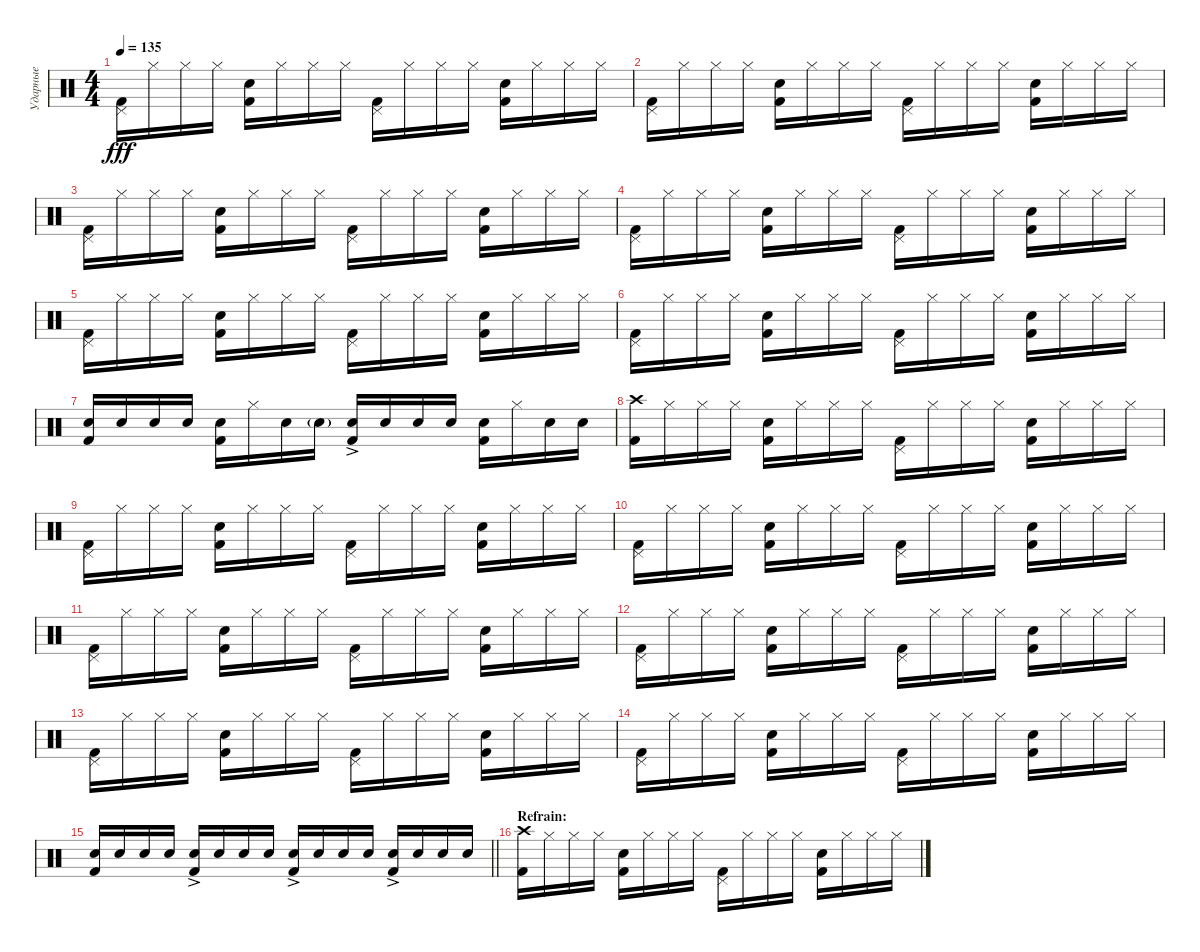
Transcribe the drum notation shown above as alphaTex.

\track ("Ударные" "Ударные") {instrument percussion}
\staff {score}
\articulation defaults
\ts (4 4)
\tempo 135
\clef neutral
\ks c
("Pedal Hi-Hat (hit)" "Kick (hit) 2").16{dy fff} "Hi-Hat (closed)".16 "Hi-Hat (closed)".16 "Hi-Hat (closed)".16 ("Snare (hit) 2" "Kick (hit) 2").16 "Hi-Hat (closed)".16 "Hi-Hat (closed)".16 "Hi-Hat (closed)".16 ("Pedal Hi-Hat (hit)" "Kick (hit) 2").16 "Hi-Hat (closed)".16 "Hi-Hat (closed)".16 "Hi-Hat (closed)".16 ("Snare (hit) 2" "Kick (hit) 2").16 "Hi-Hat (closed)".16 "Hi-Hat (closed)".16 "Hi-Hat (closed)".16 |
("Pedal Hi-Hat (hit)" "Kick (hit) 2").16 "Hi-Hat (closed)".16 "Hi-Hat (closed)".16 "Hi-Hat (closed)".16 ("Snare (hit) 2" "Kick (hit) 2").16 "Hi-Hat (closed)".16 "Hi-Hat (closed)".16 "Hi-Hat (closed)".16 ("Pedal Hi-Hat (hit)" "Kick (hit) 2").16 "Hi-Hat (closed)".16 "Hi-Hat (closed)".16 "Hi-Hat (closed)".16 ("Snare (hit) 2" "Kick (hit) 2").16 "Hi-Hat (closed)".16 "Hi-Hat (closed)".16 "Hi-Hat (closed)".16 |
("Pedal Hi-Hat (hit)" "Kick (hit) 2").16 "Hi-Hat (closed)".16 "Hi-Hat (closed)".16 "Hi-Hat (closed)".16 ("Snare (hit) 2" "Kick (hit) 2").16 "Hi-Hat (closed)".16 "Hi-Hat (closed)".16 "Hi-Hat (closed)".16 ("Pedal Hi-Hat (hit)" "Kick (hit) 2").16 "Hi-Hat (closed)".16 "Hi-Hat (closed)".16 "Hi-Hat (closed)".16 ("Snare (hit) 2" "Kick (hit) 2").16 "Hi-Hat (closed)".16 "Hi-Hat (closed)".16 "Hi-Hat (closed)".16 |
("Pedal Hi-Hat (hit)" "Kick (hit) 2").16 "Hi-Hat (closed)".16 "Hi-Hat (closed)".16 "Hi-Hat (closed)".16 ("Snare (hit) 2" "Kick (hit) 2").16 "Hi-Hat (closed)".16 "Hi-Hat (closed)".16 "Hi-Hat (closed)".16 ("Pedal Hi-Hat (hit)" "Kick (hit) 2").16 "Hi-Hat (closed)".16 "Hi-Hat (closed)".16 "Hi-Hat (closed)".16 ("Snare (hit) 2" "Kick (hit) 2").16 "Hi-Hat (closed)".16 "Hi-Hat (closed)".16 "Hi-Hat (closed)".16 |
("Pedal Hi-Hat (hit)" "Kick (hit) 2").16 "Hi-Hat (closed)".16 "Hi-Hat (closed)".16 "Hi-Hat (closed)".16 ("Snare (hit) 2" "Kick (hit) 2").16 "Hi-Hat (closed)".16 "Hi-Hat (closed)".16 "Hi-Hat (closed)".16 ("Pedal Hi-Hat (hit)" "Kick (hit) 2").16 "Hi-Hat (closed)".16 "Hi-Hat (closed)".16 "Hi-Hat (closed)".16 ("Snare (hit) 2" "Kick (hit) 2").16 "Hi-Hat (closed)".16 "Hi-Hat (closed)".16 "Hi-Hat (closed)".16 |
("Pedal Hi-Hat (hit)" "Kick (hit) 2").16 "Hi-Hat (closed)".16 "Hi-Hat (closed)".16 "Hi-Hat (closed)".16 ("Snare (hit) 2" "Kick (hit) 2").16 "Hi-Hat (closed)".16 "Hi-Hat (closed)".16 "Hi-Hat (closed)".16 ("Pedal Hi-Hat (hit)" "Kick (hit) 2").16 "Hi-Hat (closed)".16 "Hi-Hat (closed)".16 "Hi-Hat (closed)".16 ("Snare (hit) 2" "Kick (hit) 2").16 "Hi-Hat (closed)".16 "Hi-Hat (closed)".16 "Hi-Hat (closed)".16 |
("Snare (hit) 2" "Kick (hit) 2").16 "Snare (hit) 2".16 "Snare (hit) 2".16 "Snare (hit) 2".16 ("Snare (hit) 2" "Kick (hit) 2").16 "Hi-Hat (closed)".16 "Snare (hit) 2".16 "Snare (hit) 2"{g}.16 ("Snare (hit) 2"{ac} "Kick (hit) 2").16 "Snare (hit) 2".16 "Snare (hit) 2".16 "Snare (hit) 2".16 ("Snare (hit) 2" "Kick (hit) 2").16 "Hi-Hat (closed)".16 "Snare (hit) 2".16 "Snare (hit) 2".16 |
("Crash high (hit)" "Kick (hit) 2").16 "Hi-Hat (closed)".16 "Hi-Hat (closed)".16 "Hi-Hat (closed)".16 ("Snare (hit) 2" "Kick (hit) 2").16 "Hi-Hat (closed)".16 "Hi-Hat (closed)".16 "Hi-Hat (closed)".16 ("Pedal Hi-Hat (hit)" "Kick (hit) 2").16 "Hi-Hat (closed)".16 "Hi-Hat (closed)".16 "Hi-Hat (closed)".16 ("Snare (hit) 2" "Kick (hit) 2").16 "Hi-Hat (closed)".16 "Hi-Hat (closed)".16 "Hi-Hat (closed)".16 |
("Pedal Hi-Hat (hit)" "Kick (hit) 2").16 "Hi-Hat (closed)".16 "Hi-Hat (closed)".16 "Hi-Hat (closed)".16 ("Snare (hit) 2" "Kick (hit) 2").16 "Hi-Hat (closed)".16 "Hi-Hat (closed)".16 "Hi-Hat (closed)".16 ("Pedal Hi-Hat (hit)" "Kick (hit) 2").16 "Hi-Hat (closed)".16 "Hi-Hat (closed)".16 "Hi-Hat (closed)".16 ("Snare (hit) 2" "Kick (hit) 2").16 "Hi-Hat (closed)".16 "Hi-Hat (closed)".16 "Hi-Hat (closed)".16 |
("Pedal Hi-Hat (hit)" "Kick (hit) 2").16 "Hi-Hat (closed)".16 "Hi-Hat (closed)".16 "Hi-Hat (closed)".16 ("Snare (hit) 2" "Kick (hit) 2").16 "Hi-Hat (closed)".16 "Hi-Hat (closed)".16 "Hi-Hat (closed)".16 ("Pedal Hi-Hat (hit)" "Kick (hit) 2").16 "Hi-Hat (closed)".16 "Hi-Hat (closed)".16 "Hi-Hat (closed)".16 ("Snare (hit) 2" "Kick (hit) 2").16 "Hi-Hat (closed)".16 "Hi-Hat (closed)".16 "Hi-Hat (closed)".16 |
("Pedal Hi-Hat (hit)" "Kick (hit) 2").16 "Hi-Hat (closed)".16 "Hi-Hat (closed)".16 "Hi-Hat (closed)".16 ("Snare (hit) 2" "Kick (hit) 2").16 "Hi-Hat (closed)".16 "Hi-Hat (closed)".16 "Hi-Hat (closed)".16 ("Pedal Hi-Hat (hit)" "Kick (hit) 2").16 "Hi-Hat (closed)".16 "Hi-Hat (closed)".16 "Hi-Hat (closed)".16 ("Snare (hit) 2" "Kick (hit) 2").16 "Hi-Hat (closed)".16 "Hi-Hat (closed)".16 "Hi-Hat (closed)".16 |
("Pedal Hi-Hat (hit)" "Kick (hit) 2").16 "Hi-Hat (closed)".16 "Hi-Hat (closed)".16 "Hi-Hat (closed)".16 ("Snare (hit) 2" "Kick (hit) 2").16 "Hi-Hat (closed)".16 "Hi-Hat (closed)".16 "Hi-Hat (closed)".16 ("Pedal Hi-Hat (hit)" "Kick (hit) 2").16 "Hi-Hat (closed)".16 "Hi-Hat (closed)".16 "Hi-Hat (closed)".16 ("Snare (hit) 2" "Kick (hit) 2").16 "Hi-Hat (closed)".16 "Hi-Hat (closed)".16 "Hi-Hat (closed)".16 |
("Pedal Hi-Hat (hit)" "Kick (hit) 2").16 "Hi-Hat (closed)".16 "Hi-Hat (closed)".16 "Hi-Hat (closed)".16 ("Snare (hit) 2" "Kick (hit) 2").16 "Hi-Hat (closed)".16 "Hi-Hat (closed)".16 "Hi-Hat (closed)".16 ("Pedal Hi-Hat (hit)" "Kick (hit) 2").16 "Hi-Hat (closed)".16 "Hi-Hat (closed)".16 "Hi-Hat (closed)".16 ("Snare (hit) 2" "Kick (hit) 2").16 "Hi-Hat (closed)".16 "Hi-Hat (closed)".16 "Hi-Hat (closed)".16 |
("Pedal Hi-Hat (hit)" "Kick (hit) 2").16 "Hi-Hat (closed)".16 "Hi-Hat (closed)".16 "Hi-Hat (closed)".16 ("Snare (hit) 2" "Kick (hit) 2").16 "Hi-Hat (closed)".16 "Hi-Hat (closed)".16 "Hi-Hat (closed)".16 ("Pedal Hi-Hat (hit)" "Kick (hit) 2").16 "Hi-Hat (closed)".16 "Hi-Hat (closed)".16 "Hi-Hat (closed)".16 ("Snare (hit) 2" "Kick (hit) 2").16 "Hi-Hat (closed)".16 "Hi-Hat (closed)".16 "Hi-Hat (closed)".16 |
\barLineRight lightlight
("Snare (hit) 2" "Kick (hit) 2").16 "Snare (hit) 2".16 "Snare (hit) 2".16 "Snare (hit) 2".16 ("Snare (hit) 2"{ac} "Kick (hit) 2").16 "Snare (hit) 2".16 "Snare (hit) 2".16 "Snare (hit) 2".16 ("Snare (hit) 2"{ac} "Kick (hit) 2").16 "Snare (hit) 2".16 "Snare (hit) 2".16 "Snare (hit) 2".16 ("Snare (hit) 2"{ac} "Kick (hit) 2").16 "Snare (hit) 2".16 "Snare (hit) 2".16 "Snare (hit) 2".16 |
\section ("" "Refrain:")
("Crash high (hit)" "Kick (hit) 2").16 "Hi-Hat (closed)".16 "Hi-Hat (closed)".16 "Hi-Hat (closed)".16 ("Snare (hit) 2" "Kick (hit) 2").16 "Hi-Hat (closed)".16 "Hi-Hat (closed)".16 "Hi-Hat (closed)".16 ("Pedal Hi-Hat (hit)" "Kick (hit) 2").16 "Hi-Hat (closed)".16 "Hi-Hat (closed)".16 "Hi-Hat (closed)".16 ("Snare (hit) 2" "Kick (hit) 2").16 "Hi-Hat (closed)".16 "Hi-Hat (closed)".16 "Hi-Hat (closed)".16
